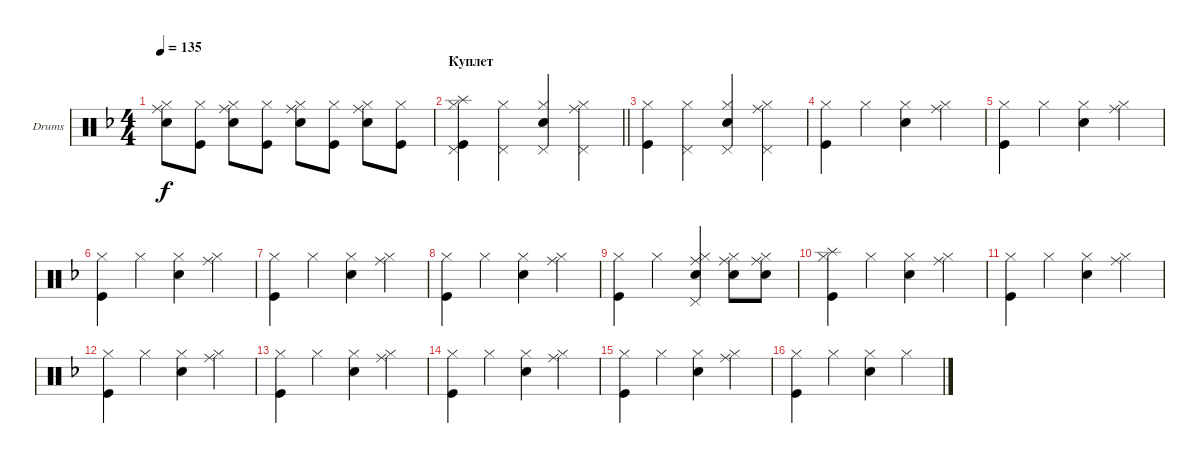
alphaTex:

\bracketExtendMode groupsimilarinstruments
\firstSystemTrackNameOrientation horizontal
\otherSystemsTrackNameOrientation horizontal
\track ("Drumkitover" "Drums") {instrument percussion}
\staff {score}
\articulation defaults
\ts (4 4)
\tempo 135
\clef neutral
\scale
0.333333
\ks dminor
("Snare (hit) 2" "Hi-Hat (closed)" "Ride (middle)").8{dy f} ("Kick (hit)" "Hi-Hat (closed)").8 ("Snare (hit) 2" "Hi-Hat (closed)" "Ride (middle)").8 ("Kick (hit)" "Hi-Hat (closed)").8 ("Snare (hit) 2" "Hi-Hat (closed)" "Ride (middle)").8 ("Kick (hit)" "Hi-Hat (closed)").8 ("Snare (hit) 2" "Hi-Hat (closed)" "Ride (middle)").8 ("Kick (hit)" "Hi-Hat (closed)").8 |
\section ("" "Куплет")
\scale
0.333333
\barLineRight lightlight
("Kick (hit)" "Hi-Hat (closed)" "Pedal Hi-Hat (hit)" "Splash (hit)").4 ("Hi-Hat (closed)" "Pedal Hi-Hat (hit)").4 ("Snare (hit) 2" "Hi-Hat (closed)" "Pedal Hi-Hat (hit)").4 ("Hi-Hat (closed)" "Pedal Hi-Hat (hit)" "Ride (middle)").4 |
("Kick (hit)" "Hi-Hat (closed)").4 ("Hi-Hat (closed)" "Pedal Hi-Hat (hit)").4 ("Snare (hit) 2" "Hi-Hat (closed)" "Pedal Hi-Hat (hit)").4 ("Hi-Hat (closed)" "Pedal Hi-Hat (hit)" "Ride (middle)").4 |
("Kick (hit)" "Hi-Hat (closed)").4 "Hi-Hat (closed)".4 ("Snare (hit) 2" "Hi-Hat (closed)").4 ("Hi-Hat (closed)" "Ride (middle)").4 |
("Kick (hit)" "Hi-Hat (closed)").4 "Hi-Hat (closed)".4 ("Snare (hit) 2" "Hi-Hat (closed)").4 ("Hi-Hat (closed)" "Ride (middle)").4 |
("Kick (hit)" "Hi-Hat (closed)").4 "Hi-Hat (closed)".4 ("Snare (hit) 2" "Hi-Hat (closed)").4 ("Hi-Hat (closed)" "Ride (middle)").4 |
("Kick (hit)" "Hi-Hat (closed)").4 "Hi-Hat (closed)".4 ("Snare (hit) 2" "Hi-Hat (closed)").4 ("Hi-Hat (closed)" "Ride (middle)").4 |
("Kick (hit)" "Hi-Hat (closed)").4 "Hi-Hat (closed)".4 ("Snare (hit) 2" "Hi-Hat (closed)").4 ("Hi-Hat (closed)" "Ride (middle)").4 |
("Kick (hit)" "Hi-Hat (closed)").4 "Hi-Hat (closed)".4 ("Ride (middle)" "Snare (hit) 2" "Hi-Hat (closed)" "Pedal Hi-Hat (hit)").4 ("Hi-Hat (closed)" "Snare (hit) 2" "Ride (middle)").8 ("Hi-Hat (closed)" "Snare (hit) 2" "Ride (middle)").8 |
("Kick (hit)" "Hi-Hat (closed)" "Splash (hit)").4 "Hi-Hat (closed)".4 ("Snare (hit) 2" "Hi-Hat (closed)").4 ("Hi-Hat (closed)" "Ride (middle)").4 |
\scale
0.333333 ("Kick (hit)" "Hi-Hat (closed)").4 "Hi-Hat (closed)".4 ("Snare (hit) 2" "Hi-Hat (closed)").4 ("Hi-Hat (closed)" "Ride (middle)").4 |
\scale
0.333333 ("Kick (hit)" "Hi-Hat (closed)").4 "Hi-Hat (closed)".4 ("Snare (hit) 2" "Hi-Hat (closed)").4 ("Hi-Hat (closed)" "Ride (middle)").4 |
\scale
0.333333 ("Kick (hit)" "Hi-Hat (closed)").4 "Hi-Hat (closed)".4 ("Snare (hit) 2" "Hi-Hat (closed)").4 ("Hi-Hat (closed)" "Ride (middle)").4 |
\scale
0.333333 ("Kick (hit)" "Hi-Hat (closed)").4 "Hi-Hat (closed)".4 ("Snare (hit) 2" "Hi-Hat (closed)").4 ("Hi-Hat (closed)" "Ride (middle)").4 |
\scale
0.333333 ("Kick (hit)" "Hi-Hat (closed)").4 "Hi-Hat (closed)".4 ("Snare (hit) 2" "Hi-Hat (closed)").4 ("Hi-Hat (closed)" "Ride (middle)").4 |
\scale
0.333333 ("Kick (hit)" "Hi-Hat (closed)").4 "Hi-Hat (closed)".4 ("Snare (hit) 2" "Hi-Hat (closed)").4 "Hi-Hat (closed)".4
